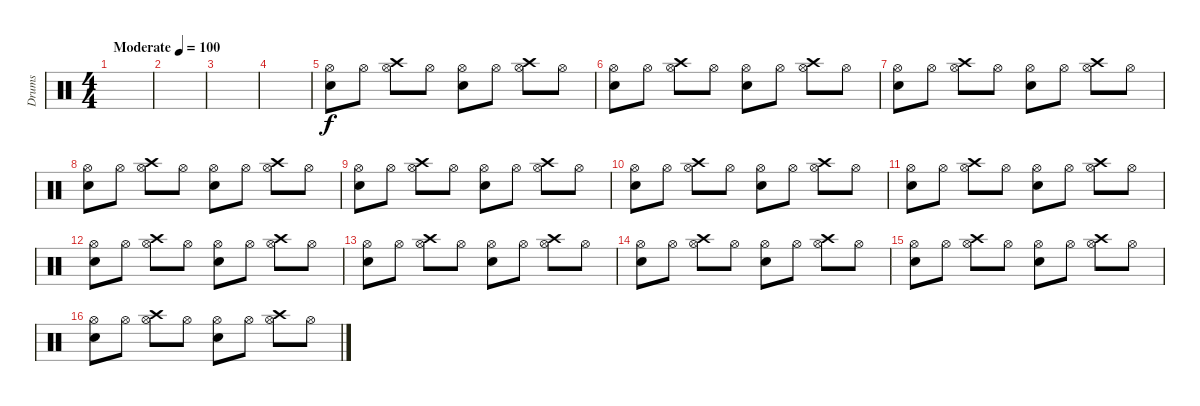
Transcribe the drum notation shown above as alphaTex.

\track ("Drums" "Drums") {instrument percussion}
\staff {score}
\articulation defaults
\ts (4 4)
\tempo (100 "Moderate")
\clef neutral
\ks c
|
|
|
|
("Snare (hit) 2" "Hi-Hat (open)").8 "Hi-Hat (open)".8 ("Crash high (hit)" "Hi-Hat (open)").8 "Hi-Hat (open)".8 ("Snare (hit) 2" "Hi-Hat (open)").8 "Hi-Hat (open)".8 ("Crash high (hit)" "Hi-Hat (open)").8 "Hi-Hat (open)".8 |
("Snare (hit) 2" "Hi-Hat (open)").8 "Hi-Hat (open)".8 ("Crash high (hit)" "Hi-Hat (open)").8 "Hi-Hat (open)".8 ("Snare (hit) 2" "Hi-Hat (open)").8 "Hi-Hat (open)".8 ("Crash high (hit)" "Hi-Hat (open)").8 "Hi-Hat (open)".8 |
("Snare (hit) 2" "Hi-Hat (open)").8 "Hi-Hat (open)".8 ("Crash high (hit)" "Hi-Hat (open)").8 "Hi-Hat (open)".8 ("Snare (hit) 2" "Hi-Hat (open)").8 "Hi-Hat (open)".8 ("Crash high (hit)" "Hi-Hat (open)").8 "Hi-Hat (open)".8 |
("Snare (hit) 2" "Hi-Hat (open)").8 "Hi-Hat (open)".8 ("Crash high (hit)" "Hi-Hat (open)").8 "Hi-Hat (open)".8 ("Snare (hit) 2" "Hi-Hat (open)").8 "Hi-Hat (open)".8 ("Crash high (hit)" "Hi-Hat (open)").8 "Hi-Hat (open)".8 |
("Snare (hit) 2" "Hi-Hat (open)").8 "Hi-Hat (open)".8 ("Crash high (hit)" "Hi-Hat (open)").8 "Hi-Hat (open)".8 ("Snare (hit) 2" "Hi-Hat (open)").8 "Hi-Hat (open)".8 ("Crash high (hit)" "Hi-Hat (open)").8 "Hi-Hat (open)".8 |
("Snare (hit) 2" "Hi-Hat (open)").8 "Hi-Hat (open)".8 ("Crash high (hit)" "Hi-Hat (open)").8 "Hi-Hat (open)".8 ("Snare (hit) 2" "Hi-Hat (open)").8 "Hi-Hat (open)".8 ("Crash high (hit)" "Hi-Hat (open)").8 "Hi-Hat (open)".8 |
("Snare (hit) 2" "Hi-Hat (open)").8 "Hi-Hat (open)".8 ("Crash high (hit)" "Hi-Hat (open)").8 "Hi-Hat (open)".8 ("Snare (hit) 2" "Hi-Hat (open)").8 "Hi-Hat (open)".8 ("Crash high (hit)" "Hi-Hat (open)").8 "Hi-Hat (open)".8 |
("Snare (hit) 2" "Hi-Hat (open)").8 "Hi-Hat (open)".8 ("Crash high (hit)" "Hi-Hat (open)").8 "Hi-Hat (open)".8 ("Snare (hit) 2" "Hi-Hat (open)").8 "Hi-Hat (open)".8 ("Crash high (hit)" "Hi-Hat (open)").8 "Hi-Hat (open)".8 |
("Snare (hit) 2" "Hi-Hat (open)").8 "Hi-Hat (open)".8 ("Crash high (hit)" "Hi-Hat (open)").8 "Hi-Hat (open)".8 ("Snare (hit) 2" "Hi-Hat (open)").8 "Hi-Hat (open)".8 ("Crash high (hit)" "Hi-Hat (open)").8 "Hi-Hat (open)".8 |
("Snare (hit) 2" "Hi-Hat (open)").8 "Hi-Hat (open)".8 ("Crash high (hit)" "Hi-Hat (open)").8 "Hi-Hat (open)".8 ("Snare (hit) 2" "Hi-Hat (open)").8 "Hi-Hat (open)".8 ("Crash high (hit)" "Hi-Hat (open)").8 "Hi-Hat (open)".8 |
("Snare (hit) 2" "Hi-Hat (open)").8 "Hi-Hat (open)".8 ("Crash high (hit)" "Hi-Hat (open)").8 "Hi-Hat (open)".8 ("Snare (hit) 2" "Hi-Hat (open)").8 "Hi-Hat (open)".8 ("Crash high (hit)" "Hi-Hat (open)").8 "Hi-Hat (open)".8 |
("Snare (hit) 2" "Hi-Hat (open)").8 "Hi-Hat (open)".8 ("Crash high (hit)" "Hi-Hat (open)").8 "Hi-Hat (open)".8 ("Snare (hit) 2" "Hi-Hat (open)").8 "Hi-Hat (open)".8 ("Crash high (hit)" "Hi-Hat (open)").8 "Hi-Hat (open)".8
